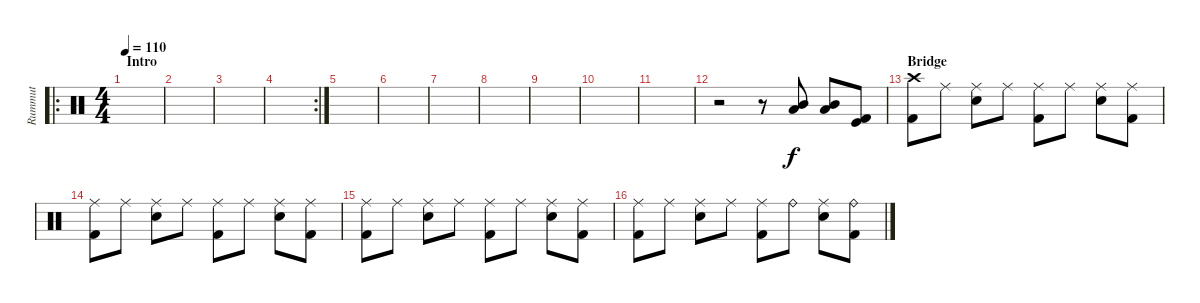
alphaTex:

\track ("Rummut" "Rummut") {instrument percussion}
\staff {score}
\articulation defaults
\ro
\ts (4 4)
\section ("" "Intro")
\tempo 110
\clef neutral
\ks c
|
|
|
\rc 2
|
|
|
|
|
|
|
|
r.2 r.8 ("Mid Tom (hit)" "Low Tom (hit)").8 ("Mid Tom (hit)" "Low Tom (hit)").8 ("Kick (hit) 2" "Kick (hit)").8 |
\section ("" "Bridge")
("Crash high (hit)" "Kick (hit) 2").8 "Ride (middle)".8 ("Ride (middle)" "Snare (hit) 2").8 "Ride (middle)".8 ("Ride (middle)" "Kick (hit) 2").8 "Ride (middle)".8 ("Ride (middle)" "Snare (hit) 2").8 ("Ride (middle)" "Kick (hit) 2").8 |
("Ride (middle)" "Kick (hit) 2").8 "Ride (middle)".8 ("Ride (middle)" "Snare (hit) 2").8 "Ride (middle)".8 ("Ride (middle)" "Kick (hit) 2").8 "Ride (middle)".8 ("Ride (middle)" "Snare (hit) 2").8 ("Ride (middle)" "Kick (hit) 2").8 |
("Ride (middle)" "Kick (hit) 2").8 "Ride (middle)".8 ("Ride (middle)" "Snare (hit) 2").8 "Ride (middle)".8 ("Ride (middle)" "Kick (hit) 2").8 "Ride (middle)".8 ("Ride (middle)" "Snare (hit) 2").8 ("Ride (middle)" "Kick (hit) 2").8 |
("Ride (middle)" "Kick (hit) 2").8 "Ride (middle)".8 ("Ride (middle)" "Snare (hit) 2").8 "Ride (middle)".8 ("Ride (middle)" "Kick (hit) 2").8 "Ride (bell)".8 ("Ride (middle)" "Snare (hit) 2").8 ("Ride (bell)" "Kick (hit) 2").8
